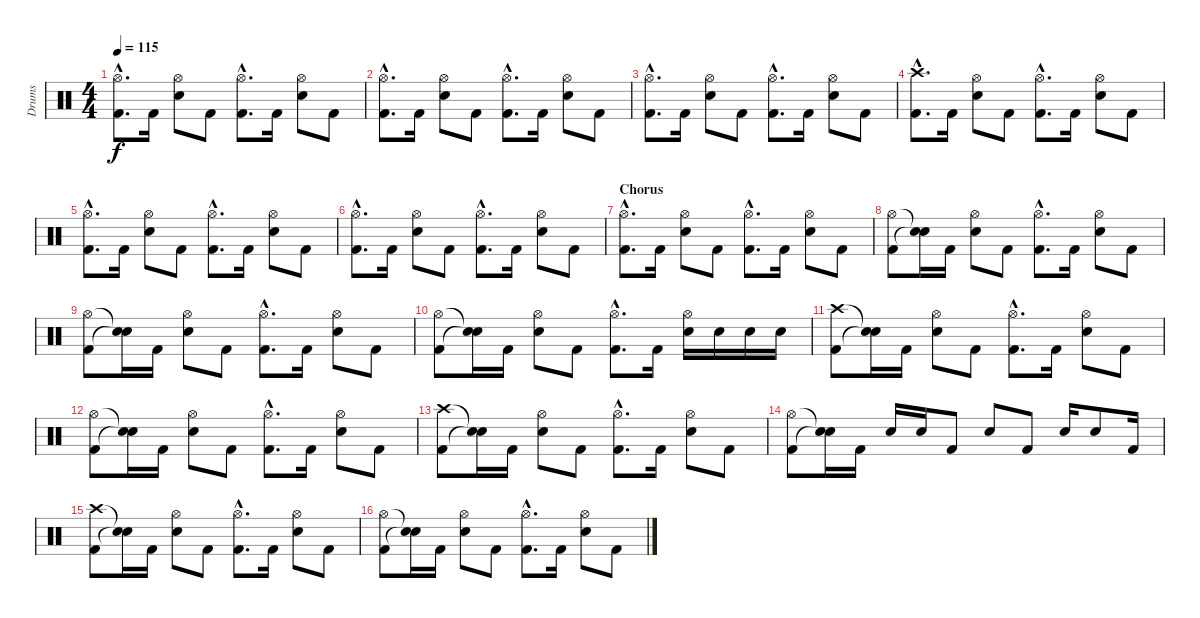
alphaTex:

\track ("Drums" "Drums") {instrument percussion}
\staff {score}
\articulation defaults
\ts (4 4)
\tempo 115
\clef neutral
\ks c
("Hi-Hat (open)"{hac} "Kick (hit) 2"{hac}).8{d dy f} "Kick (hit) 2".16 ("Hi-Hat (open)" "Snare (hit) 2").8 "Kick (hit) 2".8 ("Hi-Hat (open)"{hac} "Kick (hit) 2"{hac}).8{d} "Kick (hit) 2".16 ("Hi-Hat (open)" "Snare (hit) 2").8 "Kick (hit) 2".8 |
("Hi-Hat (open)"{hac} "Kick (hit) 2"{hac}).8{d} "Kick (hit) 2".16 ("Hi-Hat (open)" "Snare (hit) 2").8 "Kick (hit) 2".8 ("Hi-Hat (open)"{hac} "Kick (hit) 2"{hac}).8{d} "Kick (hit) 2".16 ("Hi-Hat (open)" "Snare (hit) 2").8 "Kick (hit) 2".8 |
("Hi-Hat (open)"{hac} "Kick (hit) 2"{hac}).8{d} "Kick (hit) 2".16 ("Hi-Hat (open)" "Snare (hit) 2").8 "Kick (hit) 2".8 ("Hi-Hat (open)"{hac} "Kick (hit) 2"{hac}).8{d} "Kick (hit) 2".16 ("Hi-Hat (open)" "Snare (hit) 2").8 "Kick (hit) 2".8 |
("Crash high (hit)"{hac} "Kick (hit) 2"{hac}).8{d} "Kick (hit) 2".16 ("Hi-Hat (open)" "Snare (hit) 2").8 "Kick (hit) 2".8 ("Hi-Hat (open)"{hac} "Kick (hit) 2"{hac}).8{d} "Kick (hit) 2".16 ("Hi-Hat (open)" "Snare (hit) 2").8 "Kick (hit) 2".8 |
("Hi-Hat (open)"{hac} "Kick (hit) 2"{hac}).8{d} "Kick (hit) 2".16 ("Hi-Hat (open)" "Snare (hit) 2").8 "Kick (hit) 2".8 ("Hi-Hat (open)"{hac} "Kick (hit) 2"{hac}).8{d} "Kick (hit) 2".16 ("Hi-Hat (open)" "Snare (hit) 2").8 "Kick (hit) 2".8 |
("Hi-Hat (open)"{hac} "Kick (hit) 2"{hac}).8{d} "Kick (hit) 2".16 ("Hi-Hat (open)" "Snare (hit) 2").8 "Kick (hit) 2".8 ("Hi-Hat (open)"{hac} "Kick (hit) 2"{hac}).8{d} "Kick (hit) 2".16 ("Hi-Hat (open)" "Snare (hit) 2").8 "Kick (hit) 2".8 |
\section ("" "Chorus")
("Hi-Hat (open)"{hac} "Kick (hit) 2"{hac}).8{d} "Kick (hit) 2".16 ("Hi-Hat (open)" "Snare (hit) 2").8 "Kick (hit) 2".8 ("Hi-Hat (open)"{hac} "Kick (hit) 2"{hac}).8{d} "Kick (hit) 2".16 ("Hi-Hat (open)" "Snare (hit) 2").8 "Kick (hit) 2".8 |
("Hi-Hat (open)" "Kick (hit) 2").8 ("Snare (hit)"{t} "Snare (hit)"{t}).16 "Kick (hit) 2".16 ("Hi-Hat (open)" "Snare (hit) 2").8 "Kick (hit) 2".8 ("Hi-Hat (open)"{hac} "Kick (hit) 2"{hac}).8{d} "Kick (hit) 2".16 ("Hi-Hat (open)" "Snare (hit) 2").8 "Kick (hit) 2".8 |
("Hi-Hat (open)" "Kick (hit) 2").8 ("Snare (hit)"{t} "Snare (hit)"{t}).16 "Kick (hit) 2".16 ("Hi-Hat (open)" "Snare (hit) 2").8 "Kick (hit) 2".8 ("Hi-Hat (open)"{hac} "Kick (hit) 2"{hac}).8{d} "Kick (hit) 2".16 ("Hi-Hat (open)" "Snare (hit) 2").8 "Kick (hit) 2".8 |
("Hi-Hat (open)" "Kick (hit) 2").8 ("Snare (hit)"{t} "Snare (hit)"{t}).16 "Kick (hit) 2".16 ("Hi-Hat (open)" "Snare (hit) 2").8 "Kick (hit) 2".8 ("Hi-Hat (open)"{hac} "Kick (hit) 2"{hac}).8{d} "Kick (hit) 2".16 ("Hi-Hat (open)" "Snare (hit) 2").16 "Snare (hit) 2".16 "Snare (hit) 2".16 "Snare (hit) 2".16 |
("Crash high (hit)" "Kick (hit) 2").8 ("Snare (hit)"{t} "Snare (hit)"{t}).16 "Kick (hit) 2".16 ("Hi-Hat (open)" "Snare (hit) 2").8 "Kick (hit) 2".8 ("Hi-Hat (open)"{hac} "Kick (hit) 2"{hac}).8{d} "Kick (hit) 2".16 ("Hi-Hat (open)" "Snare (hit) 2").8 "Kick (hit) 2".8 |
("Hi-Hat (open)" "Kick (hit) 2").8 ("Snare (hit)"{t} "Snare (hit)"{t}).16 "Kick (hit) 2".16 ("Hi-Hat (open)" "Snare (hit) 2").8 "Kick (hit) 2".8 ("Hi-Hat (open)"{hac} "Kick (hit) 2"{hac}).8{d} "Kick (hit) 2".16 ("Hi-Hat (open)" "Snare (hit) 2").8 "Kick (hit) 2".8 |
("Crash high (hit)" "Kick (hit) 2").8 ("Snare (hit)"{t} "Snare (hit)"{t}).16 "Kick (hit) 2".16 ("Hi-Hat (open)" "Snare (hit) 2").8 "Kick (hit) 2".8 ("Hi-Hat (open)"{hac} "Kick (hit) 2"{hac}).8{d} "Kick (hit) 2".16 ("Hi-Hat (open)" "Snare (hit) 2").8 "Kick (hit) 2".8 |
("Hi-Hat (open)" "Kick (hit) 2").8 ("Snare (hit)"{t} "Snare (hit)"{t}).16 "Kick (hit) 2".16 "Snare (hit) 2".16 "Snare (hit) 2".16 "Kick (hit) 2".8 "Snare (hit) 2".8 "Kick (hit) 2".8 "Snare (hit) 2".16 "Snare (hit) 2".8 "Kick (hit) 2".16 |
("Crash high (hit)" "Kick (hit) 2").8 ("Snare (hit)"{t} "Snare (hit)"{t}).16 "Kick (hit) 2".16 ("Hi-Hat (open)" "Snare (hit) 2").8 "Kick (hit) 2".8 ("Hi-Hat (open)"{hac} "Kick (hit) 2"{hac}).8{d} "Kick (hit) 2".16 ("Hi-Hat (open)" "Snare (hit) 2").8 "Kick (hit) 2".8 |
("Hi-Hat (open)" "Kick (hit) 2").8 ("Snare (hit)"{t} "Snare (hit)"{t}).16 "Kick (hit) 2".16 ("Hi-Hat (open)" "Snare (hit) 2").8 "Kick (hit) 2".8 ("Hi-Hat (open)"{hac} "Kick (hit) 2"{hac}).8{d} "Kick (hit) 2".16 ("Hi-Hat (open)" "Snare (hit) 2").8 "Kick (hit) 2".8
